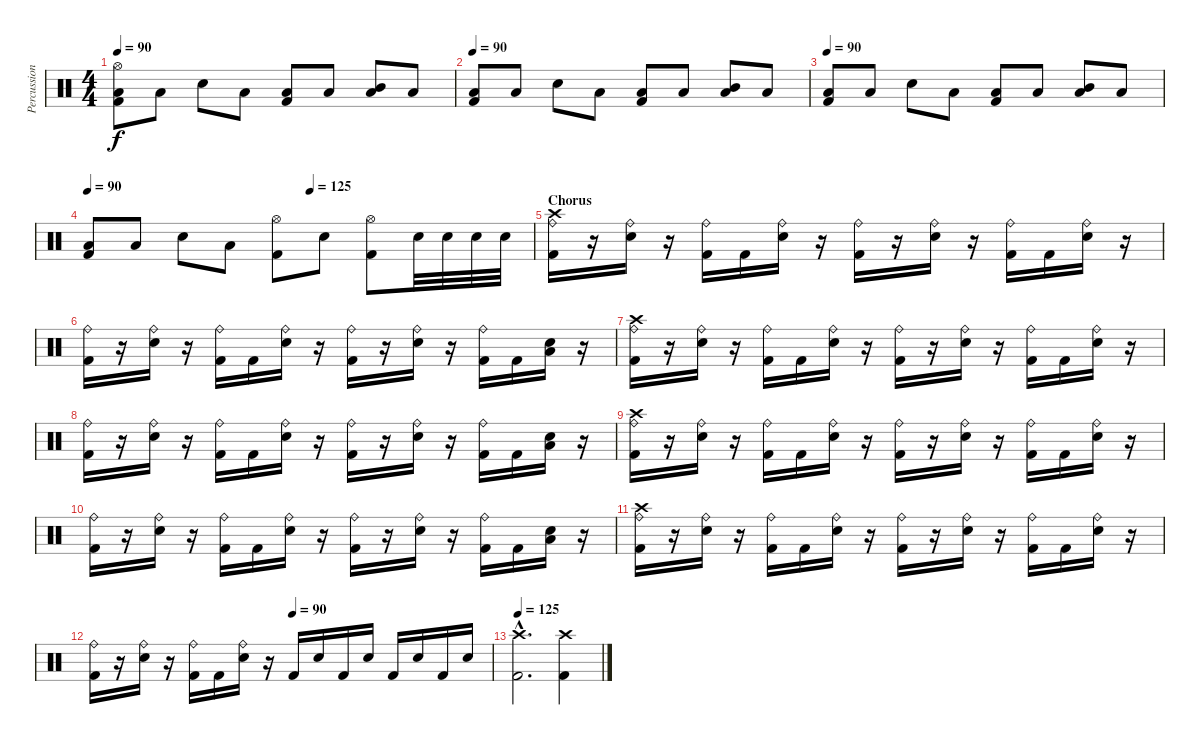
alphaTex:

\track ("Percussioni" "Percussion") {instrument percussion}
\staff {score}
\articulation defaults
\ts (4 4)
\tempo 90
\clef neutral
\ks c
("Kick (hit) 2" "Low Tom (hit)" "Hi-Hat (open)").8{dy f} "Low Tom (hit)".8 "Snare (hit) 2".8 "Low Tom (hit)".8 ("Kick (hit) 2" "Low Tom (hit)").8 "Low Tom (hit)".8 ("Low Tom (hit)" "Mid Tom (hit)").8 "Low Tom (hit)".8 |
\tempo 90
("Kick (hit) 2" "Low Tom (hit)").8 "Low Tom (hit)".8 "Snare (hit) 2".8 "Low Tom (hit)".8 ("Kick (hit) 2" "Low Tom (hit)").8 "Low Tom (hit)".8 ("Low Tom (hit)" "Mid Tom (hit)").8 "Low Tom (hit)".8 |
\tempo 90
("Kick (hit) 2" "Low Tom (hit)").8 "Low Tom (hit)".8 "Snare (hit) 2".8 "Low Tom (hit)".8 ("Kick (hit) 2" "Low Tom (hit)").8 "Low Tom (hit)".8 ("Low Tom (hit)" "Mid Tom (hit)").8 "Low Tom (hit)".8 |
\tempo (125 0.5)
\tempo 90
("Kick (hit) 2" "Low Tom (hit)").8 "Low Tom (hit)".8 "Snare (hit) 2".8 "Low Tom (hit)".8 ("Kick (hit) 2" "Hi-Hat (open)").8 "Snare (hit) 2".8 ("Hi-Hat (open)" "Kick (hit) 2").8 "Snare (hit) 2".32 "Snare (hit) 2".32 "Snare (hit) 2".32 "Snare (hit) 2".32 |
\section ("" "Chorus")
("Crash high (hit)" "Ride (bell)" "Kick (hit) 2").16 r.16 ("Ride (bell)" "Snare (hit) 2").16 r.16 ("Ride (bell)" "Kick (hit) 2").16 "Kick (hit) 2".16 ("Ride (bell)" "Snare (hit) 2").16 r.16 ("Ride (bell)" "Kick (hit) 2").16 r.16 ("Ride (bell)" "Snare (hit) 2").16 r.16 ("Ride (bell)" "Kick (hit) 2").16 "Kick (hit) 2".16 ("Ride (bell)" "Snare (hit) 2").16 r.16 |
("Ride (bell)" "Kick (hit) 2").16 r.16 ("Ride (bell)" "Snare (hit) 2").16 r.16 ("Ride (bell)" "Kick (hit) 2").16 "Kick (hit) 2".16 ("Ride (bell)" "Snare (hit) 2").16 r.16 ("Ride (bell)" "Kick (hit) 2").16 r.16 ("Ride (bell)" "Snare (hit) 2").16 r.16 ("Ride (bell)" "Kick (hit) 2").16 "Kick (hit) 2".16 ("Low Tom (hit)" "Snare (hit) 2").16 r.16 |
("Crash high (hit)" "Ride (bell)" "Kick (hit) 2").16 r.16 ("Ride (bell)" "Snare (hit) 2").16 r.16 ("Ride (bell)" "Kick (hit) 2").16 "Kick (hit) 2".16 ("Ride (bell)" "Snare (hit) 2").16 r.16 ("Ride (bell)" "Kick (hit) 2").16 r.16 ("Ride (bell)" "Snare (hit) 2").16 r.16 ("Ride (bell)" "Kick (hit) 2").16 "Kick (hit) 2".16 ("Ride (bell)" "Snare (hit) 2").16 r.16 |
("Ride (bell)" "Kick (hit) 2").16 r.16 ("Ride (bell)" "Snare (hit) 2").16 r.16 ("Ride (bell)" "Kick (hit) 2").16 "Kick (hit) 2".16 ("Ride (bell)" "Snare (hit) 2").16 r.16 ("Ride (bell)" "Kick (hit) 2").16 r.16 ("Ride (bell)" "Snare (hit) 2").16 r.16 ("Ride (bell)" "Kick (hit) 2").16 "Kick (hit) 2".16 ("Low Tom (hit)" "Snare (hit) 2").16 r.16 |
("Crash high (hit)" "Ride (bell)" "Kick (hit) 2").16 r.16 ("Ride (bell)" "Snare (hit) 2").16 r.16 ("Ride (bell)" "Kick (hit) 2").16 "Kick (hit) 2".16 ("Ride (bell)" "Snare (hit) 2").16 r.16 ("Ride (bell)" "Kick (hit) 2").16 r.16 ("Ride (bell)" "Snare (hit) 2").16 r.16 ("Ride (bell)" "Kick (hit) 2").16 "Kick (hit) 2".16 ("Ride (bell)" "Snare (hit) 2").16 r.16 |
("Ride (bell)" "Kick (hit) 2").16 r.16 ("Ride (bell)" "Snare (hit) 2").16 r.16 ("Ride (bell)" "Kick (hit) 2").16 "Kick (hit) 2".16 ("Ride (bell)" "Snare (hit) 2").16 r.16 ("Ride (bell)" "Kick (hit) 2").16 r.16 ("Ride (bell)" "Snare (hit) 2").16 r.16 ("Ride (bell)" "Kick (hit) 2").16 "Kick (hit) 2".16 ("Low Tom (hit)" "Snare (hit) 2").16 r.16 |
("Crash high (hit)" "Ride (bell)" "Kick (hit) 2").16 r.16 ("Ride (bell)" "Snare (hit) 2").16 r.16 ("Ride (bell)" "Kick (hit) 2").16 "Kick (hit) 2".16 ("Ride (bell)" "Snare (hit) 2").16 r.16 ("Ride (bell)" "Kick (hit) 2").16 r.16 ("Ride (bell)" "Snare (hit) 2").16 r.16 ("Ride (bell)" "Kick (hit) 2").16 "Kick (hit) 2".16 ("Ride (bell)" "Snare (hit) 2").16 r.16 |
\tempo (90 0.5)
("Ride (bell)" "Kick (hit) 2").16 r.16 ("Ride (bell)" "Snare (hit) 2").16 r.16 ("Ride (bell)" "Kick (hit) 2").16 "Kick (hit) 2".16 ("Ride (bell)" "Snare (hit) 2").16 r.16 "Kick (hit) 2".16 "Snare (hit) 2".16 "Kick (hit) 2".16 "Snare (hit) 2".16 "Kick (hit) 2".16 "Snare (hit) 2".16 "Kick (hit) 2".16 "Snare (hit) 2".16 |
\tempo 125
("Crash high (hit)"{hac} "Kick (hit) 2"{hac}).2{d} ("Crash high (hit)" "Kick (hit) 2").4
